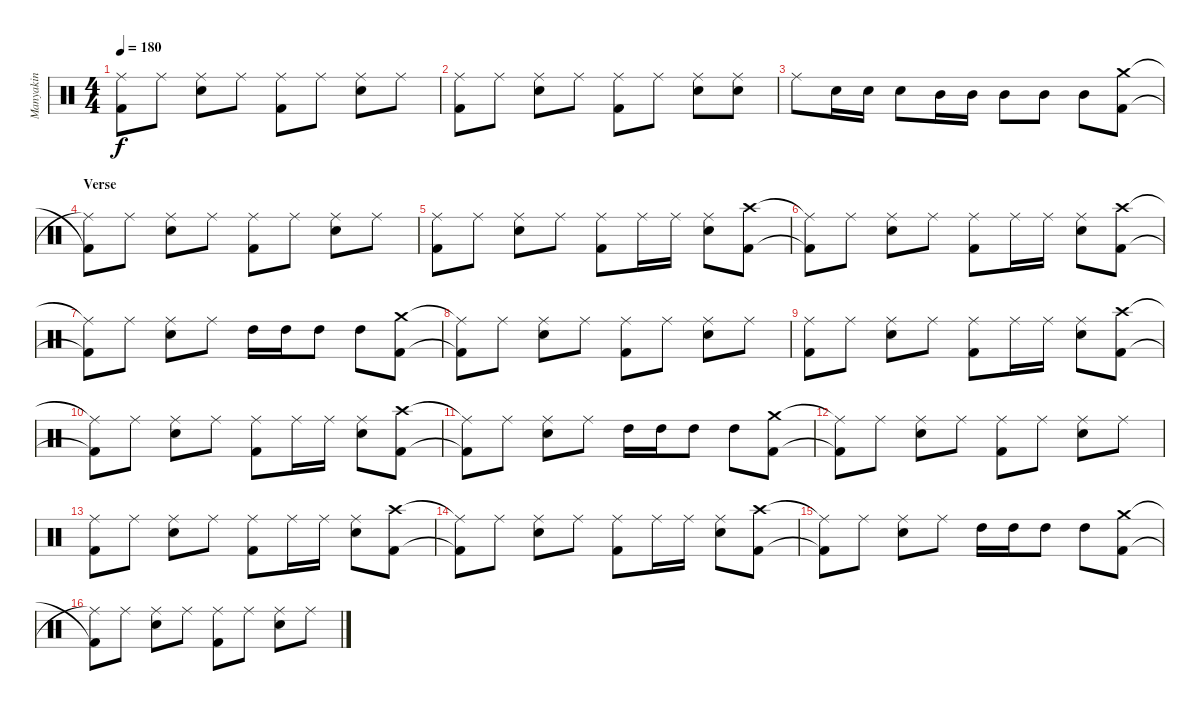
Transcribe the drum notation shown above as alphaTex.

\track ("Manyakin" "Manyakin") {instrument percussion}
\staff {score}
\articulation defaults
\ts (4 4)
\tempo 180
\clef neutral
\ks c
("Kick (hit) 2" "Ride (middle)").8{dy f} "Ride (middle)".8 ("Snare (hit) 2" "Ride (middle)").8 "Ride (middle)".8 ("Kick (hit) 2" "Ride (middle)").8 "Ride (middle)".8 ("Snare (hit) 2" "Ride (middle)").8 "Ride (middle)".8 |
("Kick (hit) 2" "Ride (middle)").8 "Ride (middle)".8 ("Snare (hit) 2" "Ride (middle)").8 "Ride (middle)".8 ("Kick (hit) 2" "Ride (middle)").8 "Ride (middle)".8 ("Snare (hit) 2" "Ride (middle)").8 ("Snare (hit) 2" "Ride (middle)").8 |
"Ride (middle)".8 "Snare (hit) 2".16 "Snare (hit) 2".16 "Snare (hit) 2".8 "Mid Tom (hit)".16 "Mid Tom (hit)".16 "Mid Tom (hit)".8 "Mid Tom (hit)".8 "Mid Tom (hit)".8 ("Kick (hit) 2" "Crash medium (hit)").8 |
\section ("" "Verse")
("Ride (middle)"{t} "Kick (hit) 2"{t}).8 "Ride (middle)".8 ("Ride (middle)" "Snare (hit) 2").8 "Ride (middle)".8 ("Ride (middle)" "Kick (hit) 2").8 "Ride (middle)".8 ("Ride (middle)" "Snare (hit) 2").8 "Ride (middle)".8 |
("Kick (hit) 2" "Ride (middle)").8 "Ride (middle)".8 ("Snare (hit) 2" "Ride (middle)").8 "Ride (middle)".8 ("Kick (hit) 2" "Ride (middle)").8 "Ride (middle)".16 "Ride (middle)".16 ("Snare (hit) 2" "Ride (middle)").8 ("Kick (hit) 2" "Crash high (hit)").8 |
("Kick (hit) 2"{t} "Ride (middle)"{t}).8 "Ride (middle)".8 ("Snare (hit) 2" "Ride (middle)").8 "Ride (middle)".8 ("Kick (hit) 2" "Ride (middle)").8 "Ride (middle)".16 "Ride (middle)".16 ("Snare (hit) 2" "Ride (middle)").8 ("Kick (hit) 2" "Crash high (hit)").8 |
("Kick (hit) 2"{t} "Ride (middle)"{t}).8 "Ride (middle)".8 ("Snare (hit) 2" "Ride (middle)").8 "Ride (middle)".8 "High Tom (hit)".16 "High Tom (hit)".16 "High Tom (hit)".8 "High Tom (hit)".8 ("Crash medium (hit)" "Kick (hit) 2").8 |
("Ride (middle)"{t} "Kick (hit) 2"{t}).8 "Ride (middle)".8 ("Ride (middle)" "Snare (hit) 2").8 "Ride (middle)".8 ("Ride (middle)" "Kick (hit) 2").8 "Ride (middle)".8 ("Ride (middle)" "Snare (hit) 2").8 "Ride (middle)".8 |
("Kick (hit) 2" "Ride (middle)").8 "Ride (middle)".8 ("Snare (hit) 2" "Ride (middle)").8 "Ride (middle)".8 ("Kick (hit) 2" "Ride (middle)").8 "Ride (middle)".16 "Ride (middle)".16 ("Snare (hit) 2" "Ride (middle)").8 ("Kick (hit) 2" "Crash high (hit)").8 |
("Kick (hit) 2"{t} "Ride (middle)"{t}).8 "Ride (middle)".8 ("Snare (hit) 2" "Ride (middle)").8 "Ride (middle)".8 ("Kick (hit) 2" "Ride (middle)").8 "Ride (middle)".16 "Ride (middle)".16 ("Snare (hit) 2" "Ride (middle)").8 ("Kick (hit) 2" "Crash high (hit)").8 |
("Kick (hit) 2"{t} "Ride (middle)"{t}).8 "Ride (middle)".8 ("Snare (hit) 2" "Ride (middle)").8 "Ride (middle)".8 "High Tom (hit)".16 "High Tom (hit)".16 "High Tom (hit)".8 "High Tom (hit)".8 ("Crash medium (hit)" "Kick (hit) 2").8 |
("Ride (middle)"{t} "Kick (hit) 2"{t}).8 "Ride (middle)".8 ("Ride (middle)" "Snare (hit) 2").8 "Ride (middle)".8 ("Ride (middle)" "Kick (hit) 2").8 "Ride (middle)".8 ("Ride (middle)" "Snare (hit) 2").8 "Ride (middle)".8 |
("Kick (hit) 2" "Ride (middle)").8 "Ride (middle)".8 ("Snare (hit) 2" "Ride (middle)").8 "Ride (middle)".8 ("Kick (hit) 2" "Ride (middle)").8 "Ride (middle)".16 "Ride (middle)".16 ("Snare (hit) 2" "Ride (middle)").8 ("Kick (hit) 2" "Crash high (hit)").8 |
("Kick (hit) 2"{t} "Ride (middle)"{t}).8 "Ride (middle)".8 ("Snare (hit) 2" "Ride (middle)").8 "Ride (middle)".8 ("Kick (hit) 2" "Ride (middle)").8 "Ride (middle)".16 "Ride (middle)".16 ("Snare (hit) 2" "Ride (middle)").8 ("Kick (hit) 2" "Crash high (hit)").8 |
("Kick (hit) 2"{t} "Ride (middle)"{t}).8 "Ride (middle)".8 ("Snare (hit) 2" "Ride (middle)").8 "Ride (middle)".8 "High Tom (hit)".16 "High Tom (hit)".16 "High Tom (hit)".8 "High Tom (hit)".8 ("Crash medium (hit)" "Kick (hit) 2").8 |
("Kick (hit) 2"{t} "Ride (middle)"{t}).8 "Ride (middle)".8 ("Snare (hit) 2" "Ride (middle)").8 "Ride (middle)".8 ("Kick (hit) 2" "Ride (middle)").8 "Ride (middle)".8 ("Snare (hit) 2" "Ride (middle)").8 "Ride (middle)".8
